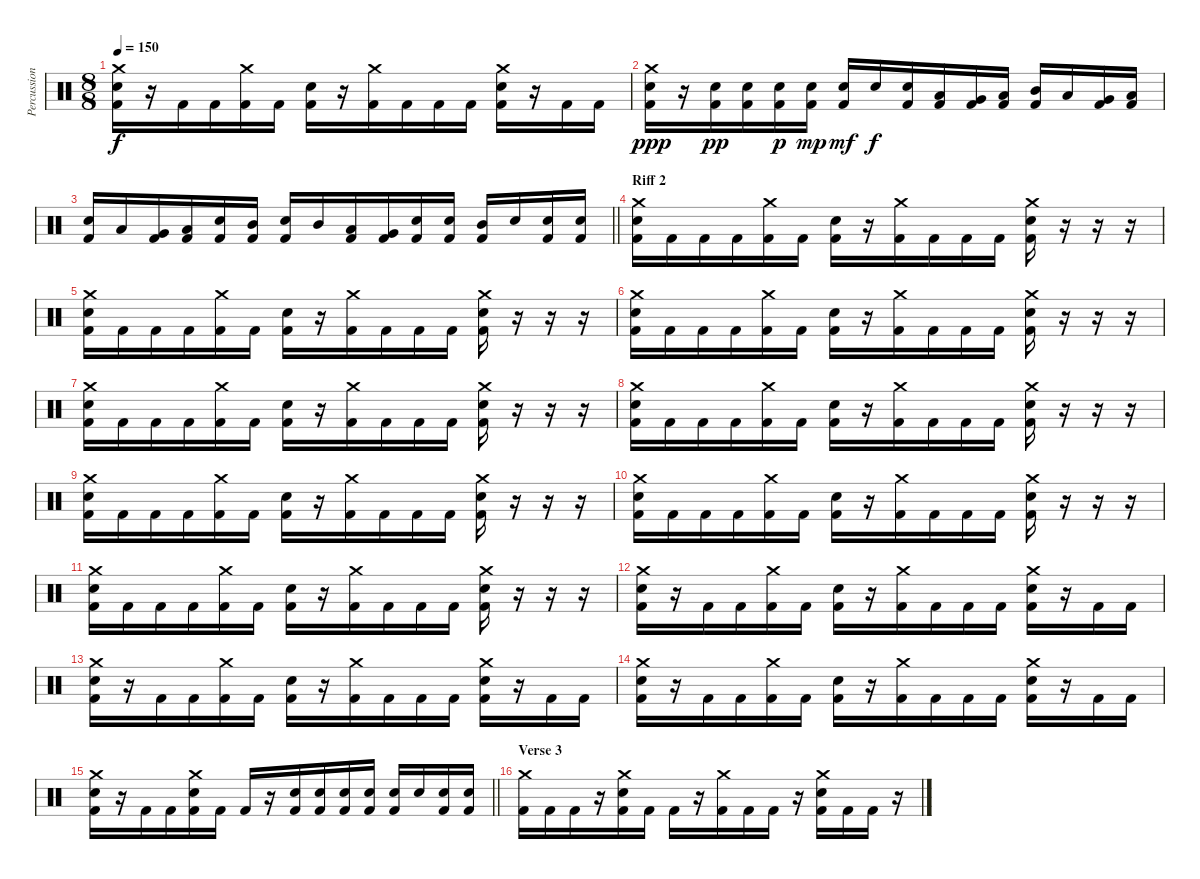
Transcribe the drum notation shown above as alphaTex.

\track ("Percussions" "Percussion") {instrument percussion}
\staff {score}
\articulation defaults
\ts (8 8)
\tempo 150
\clef neutral
\ks c
("Crash medium (hit)" "Electric Snare (hit)" "Kick (hit) 2").16{dy f} r.16 "Kick (hit) 2".16 "Kick (hit) 2".16 ("Crash medium (hit)" "Kick (hit) 2").16 "Kick (hit) 2".16 ("Electric Snare (hit)" "Kick (hit) 2").16 r.16 ("Crash medium (hit)" "Kick (hit) 2").16 "Kick (hit) 2".16 "Kick (hit) 2".16 "Kick (hit) 2".16 ("Crash medium (hit)" "Electric Snare (hit)" "Kick (hit) 2").16 r.16 "Kick (hit) 2".16 "Kick (hit) 2".16 |
("Crash medium (hit)" "Electric Snare (hit)" "Kick (hit) 2").16{dy ppp} r.16 ("Electric Snare (hit)" "Kick (hit) 2").16{dy pp} ("Electric Snare (hit)" "Kick (hit) 2").16 ("Electric Snare (hit)" "Kick (hit) 2").16{dy p} ("Electric Snare (hit)" "Kick (hit) 2").16{dy mp} ("Electric Snare (hit)" "Kick (hit) 2").16{dy mf} "Electric Snare (hit)".16{dy f} ("Electric Snare (hit)" "Kick (hit) 2").16 ("Low Tom (hit)" "Kick (hit) 2").16 ("Very Low Tom (hit)" "Kick (hit) 2").16 ("Low Floor Tom (hit)" "Kick (hit) 2").16 ("Mid Tom (hit)" "Kick (hit) 2").16 "Low Tom (hit)".16 ("Very Low Tom (hit)" "Kick (hit) 2").16 ("Low Floor Tom (hit)" "Kick (hit) 2").16 |
\barLineRight lightlight
("Electric Snare (hit)" "Kick (hit) 2").16 "Low Tom (hit)".16 ("Very Low Tom (hit)" "Kick (hit) 2").16 ("Low Floor Tom (hit)" "Kick (hit) 2").16 ("Electric Snare (hit)" "Kick (hit) 2").16 ("Mid Tom (hit)" "Kick (hit) 2").16 ("Electric Snare (hit)" "Kick (hit) 2").16 "Mid Tom (hit)".16 ("Low Tom (hit)" "Kick (hit) 2").16 ("Very Low Tom (hit)" "Kick (hit) 2").16 ("Electric Snare (hit)" "Kick (hit) 2").16 ("Electric Snare (hit)" "Kick (hit) 2").16 ("Mid Tom (hit)" "Kick (hit) 2").16 "Electric Snare (hit)".16 ("Electric Snare (hit)" "Kick (hit) 2").16 ("Electric Snare (hit)" "Kick (hit) 2").16 |
\section ("" "Riff 2")
("Crash medium (hit)" "Electric Snare (hit)" "Kick (hit) 2").16 "Kick (hit) 2".16 "Kick (hit) 2".16 "Kick (hit) 2".16 ("Crash medium (hit)" "Kick (hit) 2").16 "Kick (hit) 2".16 ("Electric Snare (hit)" "Kick (hit) 2").16 r.16 ("Crash medium (hit)" "Kick (hit) 2").16 "Kick (hit) 2".16 "Kick (hit) 2".16 "Kick (hit) 2".16 ("Crash medium (hit)" "Electric Snare (hit)" "Kick (hit) 2").16 r.16 r.16 r.16 |
("Crash medium (hit)" "Electric Snare (hit)" "Kick (hit) 2").16 "Kick (hit) 2".16 "Kick (hit) 2".16 "Kick (hit) 2".16 ("Crash medium (hit)" "Kick (hit) 2").16 "Kick (hit) 2".16 ("Electric Snare (hit)" "Kick (hit) 2").16 r.16 ("Crash medium (hit)" "Kick (hit) 2").16 "Kick (hit) 2".16 "Kick (hit) 2".16 "Kick (hit) 2".16 ("Crash medium (hit)" "Electric Snare (hit)" "Kick (hit) 2").16 r.16 r.16 r.16 |
("Crash medium (hit)" "Electric Snare (hit)" "Kick (hit) 2").16 "Kick (hit) 2".16 "Kick (hit) 2".16 "Kick (hit) 2".16 ("Crash medium (hit)" "Kick (hit) 2").16 "Kick (hit) 2".16 ("Electric Snare (hit)" "Kick (hit) 2").16 r.16 ("Crash medium (hit)" "Kick (hit) 2").16 "Kick (hit) 2".16 "Kick (hit) 2".16 "Kick (hit) 2".16 ("Crash medium (hit)" "Electric Snare (hit)" "Kick (hit) 2").16 r.16 r.16 r.16 |
("Crash medium (hit)" "Electric Snare (hit)" "Kick (hit) 2").16 "Kick (hit) 2".16 "Kick (hit) 2".16 "Kick (hit) 2".16 ("Crash medium (hit)" "Kick (hit) 2").16 "Kick (hit) 2".16 ("Electric Snare (hit)" "Kick (hit) 2").16 r.16 ("Crash medium (hit)" "Kick (hit) 2").16 "Kick (hit) 2".16 "Kick (hit) 2".16 "Kick (hit) 2".16 ("Crash medium (hit)" "Electric Snare (hit)" "Kick (hit) 2").16 r.16 r.16 r.16 |
("Crash medium (hit)" "Electric Snare (hit)" "Kick (hit) 2").16 "Kick (hit) 2".16 "Kick (hit) 2".16 "Kick (hit) 2".16 ("Crash medium (hit)" "Kick (hit) 2").16 "Kick (hit) 2".16 ("Electric Snare (hit)" "Kick (hit) 2").16 r.16 ("Crash medium (hit)" "Kick (hit) 2").16 "Kick (hit) 2".16 "Kick (hit) 2".16 "Kick (hit) 2".16 ("Crash medium (hit)" "Electric Snare (hit)" "Kick (hit) 2").16 r.16 r.16 r.16 |
("Crash medium (hit)" "Electric Snare (hit)" "Kick (hit) 2").16 "Kick (hit) 2".16 "Kick (hit) 2".16 "Kick (hit) 2".16 ("Crash medium (hit)" "Kick (hit) 2").16 "Kick (hit) 2".16 ("Electric Snare (hit)" "Kick (hit) 2").16 r.16 ("Crash medium (hit)" "Kick (hit) 2").16 "Kick (hit) 2".16 "Kick (hit) 2".16 "Kick (hit) 2".16 ("Crash medium (hit)" "Electric Snare (hit)" "Kick (hit) 2").16 r.16 r.16 r.16 |
("Crash medium (hit)" "Electric Snare (hit)" "Kick (hit) 2").16 "Kick (hit) 2".16 "Kick (hit) 2".16 "Kick (hit) 2".16 ("Crash medium (hit)" "Kick (hit) 2").16 "Kick (hit) 2".16 ("Electric Snare (hit)" "Kick (hit) 2").16 r.16 ("Crash medium (hit)" "Kick (hit) 2").16 "Kick (hit) 2".16 "Kick (hit) 2".16 "Kick (hit) 2".16 ("Crash medium (hit)" "Electric Snare (hit)" "Kick (hit) 2").16 r.16 r.16 r.16 |
("Crash medium (hit)" "Electric Snare (hit)" "Kick (hit) 2").16 "Kick (hit) 2".16 "Kick (hit) 2".16 "Kick (hit) 2".16 ("Crash medium (hit)" "Kick (hit) 2").16 "Kick (hit) 2".16 ("Electric Snare (hit)" "Kick (hit) 2").16 r.16 ("Crash medium (hit)" "Kick (hit) 2").16 "Kick (hit) 2".16 "Kick (hit) 2".16 "Kick (hit) 2".16 ("Crash medium (hit)" "Electric Snare (hit)" "Kick (hit) 2").16 r.16 r.16 r.16 |
("Crash medium (hit)" "Electric Snare (hit)" "Kick (hit) 2").16 r.16 "Kick (hit) 2".16 "Kick (hit) 2".16 ("Crash medium (hit)" "Kick (hit) 2").16 "Kick (hit) 2".16 ("Electric Snare (hit)" "Kick (hit) 2").16 r.16 ("Crash medium (hit)" "Kick (hit) 2").16 "Kick (hit) 2".16 "Kick (hit) 2".16 "Kick (hit) 2".16 ("Crash medium (hit)" "Electric Snare (hit)" "Kick (hit) 2").16 r.16 "Kick (hit) 2".16 "Kick (hit) 2".16 |
("Crash medium (hit)" "Electric Snare (hit)" "Kick (hit) 2").16 r.16 "Kick (hit) 2".16 "Kick (hit) 2".16 ("Crash medium (hit)" "Kick (hit) 2").16 "Kick (hit) 2".16 ("Electric Snare (hit)" "Kick (hit) 2").16 r.16 ("Crash medium (hit)" "Kick (hit) 2").16 "Kick (hit) 2".16 "Kick (hit) 2".16 "Kick (hit) 2".16 ("Crash medium (hit)" "Electric Snare (hit)" "Kick (hit) 2").16 r.16 "Kick (hit) 2".16 "Kick (hit) 2".16 |
("Crash medium (hit)" "Electric Snare (hit)" "Kick (hit) 2").16 r.16 "Kick (hit) 2".16 "Kick (hit) 2".16 ("Crash medium (hit)" "Kick (hit) 2").16 "Kick (hit) 2".16 ("Electric Snare (hit)" "Kick (hit) 2").16 r.16 ("Crash medium (hit)" "Kick (hit) 2").16 "Kick (hit) 2".16 "Kick (hit) 2".16 "Kick (hit) 2".16 ("Crash medium (hit)" "Electric Snare (hit)" "Kick (hit) 2").16 r.16 "Kick (hit) 2".16 "Kick (hit) 2".16 |
\barLineRight lightlight
("Crash medium (hit)" "Electric Snare (hit)" "Kick (hit) 2").16 r.16 "Kick (hit) 2".16 "Kick (hit) 2".16 ("Crash medium (hit)" "Electric Snare (hit)" "Kick (hit) 2").16 "Kick (hit) 2".16 "Kick (hit) 2".16 r.16 ("Electric Snare (hit)" "Kick (hit) 2").16 ("Electric Snare (hit)" "Kick (hit) 2").16 ("Electric Snare (hit)" "Kick (hit) 2").16 ("Electric Snare (hit)" "Kick (hit) 2").16 ("Electric Snare (hit)" "Kick (hit) 2").16 "Electric Snare (hit)".16 ("Electric Snare (hit)" "Kick (hit) 2").16 ("Electric Snare (hit)" "Kick (hit) 2").16 |
\section ("" "Verse 3")
("Crash medium (hit)" "Kick (hit) 2").16 "Kick (hit) 2".16 "Kick (hit) 2".16 r.16 ("Crash medium (hit)" "Electric Snare (hit)" "Kick (hit) 2").16 "Kick (hit) 2".16 "Kick (hit) 2".16 r.16 ("Crash medium (hit)" "Kick (hit) 2").16 "Kick (hit) 2".16 "Kick (hit) 2".16 r.16 ("Crash medium (hit)" "Electric Snare (hit)" "Kick (hit) 2").16 "Kick (hit) 2".16 "Kick (hit) 2".16 r.16
